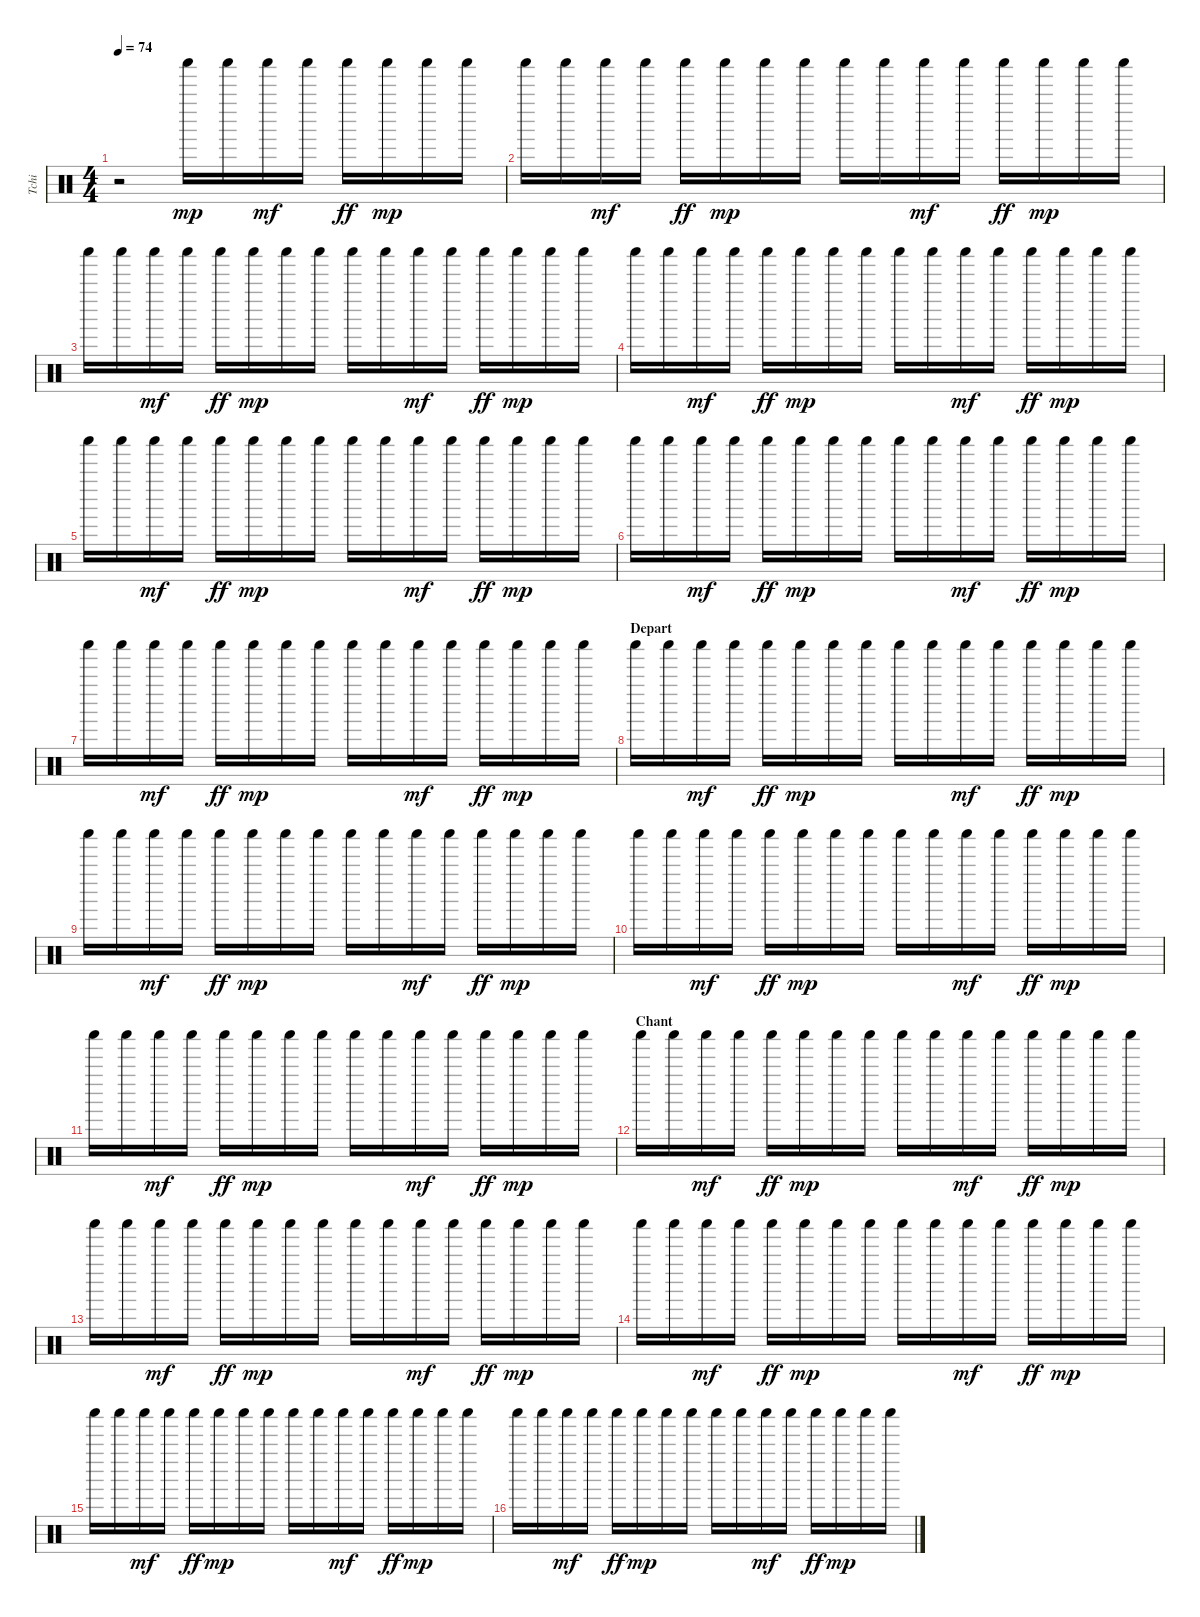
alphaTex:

\track ("Tchi" "Tchi") {instrument percussion}
\staff {score}
\articulation defaults
\ts (4 4)
\tempo 74
\clef neutral
\ks c
r.2{dy mp} "Shaker (hit)".16 "Shaker (hit)".16 "Shaker (hit)".16{dy mf} "Shaker (hit)".16 "Shaker (hit)".16{dy ff} "Shaker (hit)".16{dy mp} "Shaker (hit)".16 "Shaker (hit)".16 |
"Shaker (hit)".16 "Shaker (hit)".16 "Shaker (hit)".16{dy mf} "Shaker (hit)".16 "Shaker (hit)".16{dy ff} "Shaker (hit)".16{dy mp} "Shaker (hit)".16 "Shaker (hit)".16 "Shaker (hit)".16 "Shaker (hit)".16 "Shaker (hit)".16{dy mf} "Shaker (hit)".16 "Shaker (hit)".16{dy ff} "Shaker (hit)".16{dy mp} "Shaker (hit)".16 "Shaker (hit)".16 |
"Shaker (hit)".16 "Shaker (hit)".16 "Shaker (hit)".16{dy mf} "Shaker (hit)".16 "Shaker (hit)".16{dy ff} "Shaker (hit)".16{dy mp} "Shaker (hit)".16 "Shaker (hit)".16 "Shaker (hit)".16 "Shaker (hit)".16 "Shaker (hit)".16{dy mf} "Shaker (hit)".16 "Shaker (hit)".16{dy ff} "Shaker (hit)".16{dy mp} "Shaker (hit)".16 "Shaker (hit)".16 |
"Shaker (hit)".16 "Shaker (hit)".16 "Shaker (hit)".16{dy mf} "Shaker (hit)".16 "Shaker (hit)".16{dy ff} "Shaker (hit)".16{dy mp} "Shaker (hit)".16 "Shaker (hit)".16 "Shaker (hit)".16 "Shaker (hit)".16 "Shaker (hit)".16{dy mf} "Shaker (hit)".16 "Shaker (hit)".16{dy ff} "Shaker (hit)".16{dy mp} "Shaker (hit)".16 "Shaker (hit)".16 |
"Shaker (hit)".16 "Shaker (hit)".16 "Shaker (hit)".16{dy mf} "Shaker (hit)".16 "Shaker (hit)".16{dy ff} "Shaker (hit)".16{dy mp} "Shaker (hit)".16 "Shaker (hit)".16 "Shaker (hit)".16 "Shaker (hit)".16 "Shaker (hit)".16{dy mf} "Shaker (hit)".16 "Shaker (hit)".16{dy ff} "Shaker (hit)".16{dy mp} "Shaker (hit)".16 "Shaker (hit)".16 |
"Shaker (hit)".16 "Shaker (hit)".16 "Shaker (hit)".16{dy mf} "Shaker (hit)".16 "Shaker (hit)".16{dy ff} "Shaker (hit)".16{dy mp} "Shaker (hit)".16 "Shaker (hit)".16 "Shaker (hit)".16 "Shaker (hit)".16 "Shaker (hit)".16{dy mf} "Shaker (hit)".16 "Shaker (hit)".16{dy ff} "Shaker (hit)".16{dy mp} "Shaker (hit)".16 "Shaker (hit)".16 |
"Shaker (hit)".16 "Shaker (hit)".16 "Shaker (hit)".16{dy mf} "Shaker (hit)".16 "Shaker (hit)".16{dy ff} "Shaker (hit)".16{dy mp} "Shaker (hit)".16 "Shaker (hit)".16 "Shaker (hit)".16 "Shaker (hit)".16 "Shaker (hit)".16{dy mf} "Shaker (hit)".16 "Shaker (hit)".16{dy ff} "Shaker (hit)".16{dy mp} "Shaker (hit)".16 "Shaker (hit)".16 |
\section ("" "Depart")
"Shaker (hit)".16 "Shaker (hit)".16 "Shaker (hit)".16{dy mf} "Shaker (hit)".16 "Shaker (hit)".16{dy ff} "Shaker (hit)".16{dy mp} "Shaker (hit)".16 "Shaker (hit)".16 "Shaker (hit)".16 "Shaker (hit)".16 "Shaker (hit)".16{dy mf} "Shaker (hit)".16 "Shaker (hit)".16{dy ff} "Shaker (hit)".16{dy mp} "Shaker (hit)".16 "Shaker (hit)".16 |
"Shaker (hit)".16 "Shaker (hit)".16 "Shaker (hit)".16{dy mf} "Shaker (hit)".16 "Shaker (hit)".16{dy ff} "Shaker (hit)".16{dy mp} "Shaker (hit)".16 "Shaker (hit)".16 "Shaker (hit)".16 "Shaker (hit)".16 "Shaker (hit)".16{dy mf} "Shaker (hit)".16 "Shaker (hit)".16{dy ff} "Shaker (hit)".16{dy mp} "Shaker (hit)".16 "Shaker (hit)".16 |
"Shaker (hit)".16 "Shaker (hit)".16 "Shaker (hit)".16{dy mf} "Shaker (hit)".16 "Shaker (hit)".16{dy ff} "Shaker (hit)".16{dy mp} "Shaker (hit)".16 "Shaker (hit)".16 "Shaker (hit)".16 "Shaker (hit)".16 "Shaker (hit)".16{dy mf} "Shaker (hit)".16 "Shaker (hit)".16{dy ff} "Shaker (hit)".16{dy mp} "Shaker (hit)".16 "Shaker (hit)".16 |
"Shaker (hit)".16 "Shaker (hit)".16 "Shaker (hit)".16{dy mf} "Shaker (hit)".16 "Shaker (hit)".16{dy ff} "Shaker (hit)".16{dy mp} "Shaker (hit)".16 "Shaker (hit)".16 "Shaker (hit)".16 "Shaker (hit)".16 "Shaker (hit)".16{dy mf} "Shaker (hit)".16 "Shaker (hit)".16{dy ff} "Shaker (hit)".16{dy mp} "Shaker (hit)".16 "Shaker (hit)".16 |
\section ("" "Chant")
"Shaker (hit)".16 "Shaker (hit)".16 "Shaker (hit)".16{dy mf} "Shaker (hit)".16 "Shaker (hit)".16{dy ff} "Shaker (hit)".16{dy mp} "Shaker (hit)".16 "Shaker (hit)".16 "Shaker (hit)".16 "Shaker (hit)".16 "Shaker (hit)".16{dy mf} "Shaker (hit)".16 "Shaker (hit)".16{dy ff} "Shaker (hit)".16{dy mp} "Shaker (hit)".16 "Shaker (hit)".16 |
"Shaker (hit)".16 "Shaker (hit)".16 "Shaker (hit)".16{dy mf} "Shaker (hit)".16 "Shaker (hit)".16{dy ff} "Shaker (hit)".16{dy mp} "Shaker (hit)".16 "Shaker (hit)".16 "Shaker (hit)".16 "Shaker (hit)".16 "Shaker (hit)".16{dy mf} "Shaker (hit)".16 "Shaker (hit)".16{dy ff} "Shaker (hit)".16{dy mp} "Shaker (hit)".16 "Shaker (hit)".16 |
"Shaker (hit)".16 "Shaker (hit)".16 "Shaker (hit)".16{dy mf} "Shaker (hit)".16 "Shaker (hit)".16{dy ff} "Shaker (hit)".16{dy mp} "Shaker (hit)".16 "Shaker (hit)".16 "Shaker (hit)".16 "Shaker (hit)".16 "Shaker (hit)".16{dy mf} "Shaker (hit)".16 "Shaker (hit)".16{dy ff} "Shaker (hit)".16{dy mp} "Shaker (hit)".16 "Shaker (hit)".16 |
"Shaker (hit)".16 "Shaker (hit)".16 "Shaker (hit)".16{dy mf} "Shaker (hit)".16 "Shaker (hit)".16{dy ff} "Shaker (hit)".16{dy mp} "Shaker (hit)".16 "Shaker (hit)".16 "Shaker (hit)".16 "Shaker (hit)".16 "Shaker (hit)".16{dy mf} "Shaker (hit)".16 "Shaker (hit)".16{dy ff} "Shaker (hit)".16{dy mp} "Shaker (hit)".16 "Shaker (hit)".16 |
"Shaker (hit)".16 "Shaker (hit)".16 "Shaker (hit)".16{dy mf} "Shaker (hit)".16 "Shaker (hit)".16{dy ff} "Shaker (hit)".16{dy mp} "Shaker (hit)".16 "Shaker (hit)".16 "Shaker (hit)".16 "Shaker (hit)".16 "Shaker (hit)".16{dy mf} "Shaker (hit)".16 "Shaker (hit)".16{dy ff} "Shaker (hit)".16{dy mp} "Shaker (hit)".16 "Shaker (hit)".16
